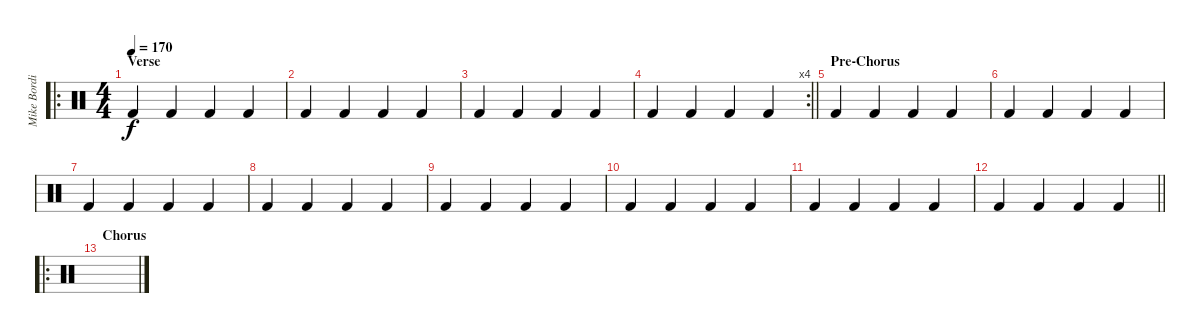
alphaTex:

\track ("Mike Bordin Backing" "Mike Bordi") {instrument percussion}
\staff {score}
\articulation defaults
\ro
\ts (4 4)
\section ("" "Verse")
\tempo 170
\clef neutral
\ks c "Kick (hit) 2".4{dy f volume 14} "Kick (hit) 2".4 "Kick (hit) 2".4 "Kick (hit) 2".4
|
"Kick (hit) 2".4 "Kick (hit) 2".4 "Kick (hit) 2".4 "Kick (hit) 2".4 |
"Kick (hit) 2".4 "Kick (hit) 2".4 "Kick (hit) 2".4 "Kick (hit) 2".4 |
\rc 4
\barLineRight lightlight "Kick (hit) 2".4 "Kick (hit) 2".4 "Kick (hit) 2".4 "Kick (hit) 2".4
|
\section ("" "Pre-Chorus")
"Kick (hit) 2".4 "Kick (hit) 2".4 "Kick (hit) 2".4 "Kick (hit) 2".4 |
"Kick (hit) 2".4 "Kick (hit) 2".4 "Kick (hit) 2".4 "Kick (hit) 2".4 |
"Kick (hit) 2".4 "Kick (hit) 2".4 "Kick (hit) 2".4 "Kick (hit) 2".4 |
"Kick (hit) 2".4 "Kick (hit) 2".4 "Kick (hit) 2".4 "Kick (hit) 2".4 |
"Kick (hit) 2".4 "Kick (hit) 2".4 "Kick (hit) 2".4 "Kick (hit) 2".4 |
"Kick (hit) 2".4 "Kick (hit) 2".4 "Kick (hit) 2".4 "Kick (hit) 2".4 |
"Kick (hit) 2".4 "Kick (hit) 2".4 "Kick (hit) 2".4 "Kick (hit) 2".4 |
\barLineRight lightlight "Kick (hit) 2".4 "Kick (hit) 2".4 "Kick (hit) 2".4 "Kick (hit) 2".4
|
\ro
\section ("" "Chorus")
